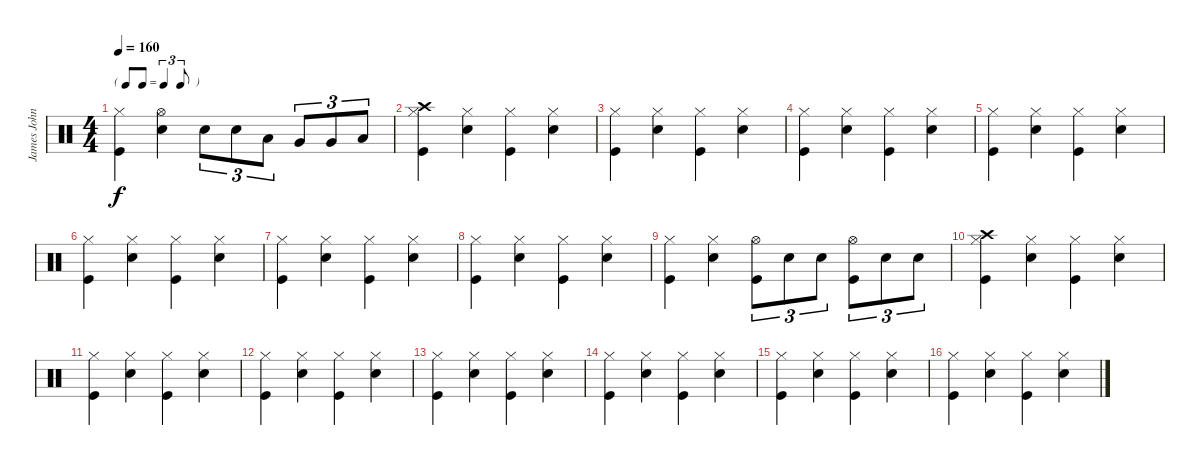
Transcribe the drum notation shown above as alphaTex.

\track ("James Johnston" "James John") {instrument percussion}
\staff {score}
\articulation defaults
\ts (4 4)
\tf triplet8th
\tempo 160
\clef neutral
\ks c
("Hi-Hat (closed)" "Kick (hit)").4{dy f} ("Hi-Hat (open)" "Electric Snare (hit)").4 "Electric Snare (hit)".8{tu (3 2)} "Electric Snare (hit)".8{tu (3 2)} "Low Tom (hit)".8{tu (3 2)} "Very Low Tom (hit)".8{tu (3 2)} "Very Low Tom (hit)".8{tu (3 2)} "Low Floor Tom (hit)".8{tu (3 2)} |
("Crash high (hit)" "Hi-Hat (closed)" "Kick (hit)").4 ("Hi-Hat (closed)" "Electric Snare (hit)").4 ("Hi-Hat (closed)" "Kick (hit)").4 ("Hi-Hat (closed)" "Electric Snare (hit)").4 |
("Hi-Hat (closed)" "Kick (hit)").4 ("Hi-Hat (closed)" "Electric Snare (hit)").4 ("Hi-Hat (closed)" "Kick (hit)").4 ("Hi-Hat (closed)" "Electric Snare (hit)").4 |
("Hi-Hat (closed)" "Kick (hit)").4 ("Hi-Hat (closed)" "Electric Snare (hit)").4 ("Hi-Hat (closed)" "Kick (hit)").4 ("Hi-Hat (closed)" "Electric Snare (hit)").4 |
("Hi-Hat (closed)" "Kick (hit)").4 ("Hi-Hat (closed)" "Electric Snare (hit)").4 ("Hi-Hat (closed)" "Kick (hit)").4 ("Hi-Hat (closed)" "Electric Snare (hit)").4 |
("Hi-Hat (closed)" "Kick (hit)").4 ("Hi-Hat (closed)" "Electric Snare (hit)").4 ("Hi-Hat (closed)" "Kick (hit)").4 ("Hi-Hat (closed)" "Electric Snare (hit)").4 |
("Hi-Hat (closed)" "Kick (hit)").4 ("Hi-Hat (closed)" "Electric Snare (hit)").4 ("Hi-Hat (closed)" "Kick (hit)").4 ("Hi-Hat (closed)" "Electric Snare (hit)").4 |
("Hi-Hat (closed)" "Kick (hit)").4 ("Hi-Hat (closed)" "Electric Snare (hit)").4 ("Hi-Hat (closed)" "Kick (hit)").4 ("Hi-Hat (closed)" "Electric Snare (hit)").4 |
("Hi-Hat (closed)" "Kick (hit)").4 ("Hi-Hat (closed)" "Electric Snare (hit)").4 ("Hi-Hat (open)" "Kick (hit)").8{tu (3 2)} "Electric Snare (hit)".8{tu (3 2)} "Electric Snare (hit)".8{tu (3 2)} ("Hi-Hat (open)" "Kick (hit)").8{tu (3 2)} "Electric Snare (hit)".8{tu (3 2)} "Electric Snare (hit)".8{tu (3 2)} |
("Crash high (hit)" "Hi-Hat (closed)" "Kick (hit)").4 ("Hi-Hat (closed)" "Electric Snare (hit)").4 ("Hi-Hat (closed)" "Kick (hit)").4 ("Hi-Hat (closed)" "Electric Snare (hit)").4 |
("Hi-Hat (closed)" "Kick (hit)").4 ("Hi-Hat (closed)" "Electric Snare (hit)").4 ("Hi-Hat (closed)" "Kick (hit)").4 ("Hi-Hat (closed)" "Electric Snare (hit)").4 |
("Hi-Hat (closed)" "Kick (hit)").4 ("Hi-Hat (closed)" "Electric Snare (hit)").4 ("Hi-Hat (closed)" "Kick (hit)").4 ("Hi-Hat (closed)" "Electric Snare (hit)").4 |
("Hi-Hat (closed)" "Kick (hit)").4 ("Hi-Hat (closed)" "Electric Snare (hit)").4 ("Hi-Hat (closed)" "Kick (hit)").4 ("Hi-Hat (closed)" "Electric Snare (hit)").4 |
("Hi-Hat (closed)" "Kick (hit)").4 ("Hi-Hat (closed)" "Electric Snare (hit)").4 ("Hi-Hat (closed)" "Kick (hit)").4 ("Hi-Hat (closed)" "Electric Snare (hit)").4 |
("Hi-Hat (closed)" "Kick (hit)").4 ("Hi-Hat (closed)" "Electric Snare (hit)").4 ("Hi-Hat (closed)" "Kick (hit)").4 ("Hi-Hat (closed)" "Electric Snare (hit)").4 |
("Hi-Hat (closed)" "Kick (hit)").4 ("Hi-Hat (closed)" "Electric Snare (hit)").4 ("Hi-Hat (closed)" "Kick (hit)").4 ("Hi-Hat (closed)" "Electric Snare (hit)").4
